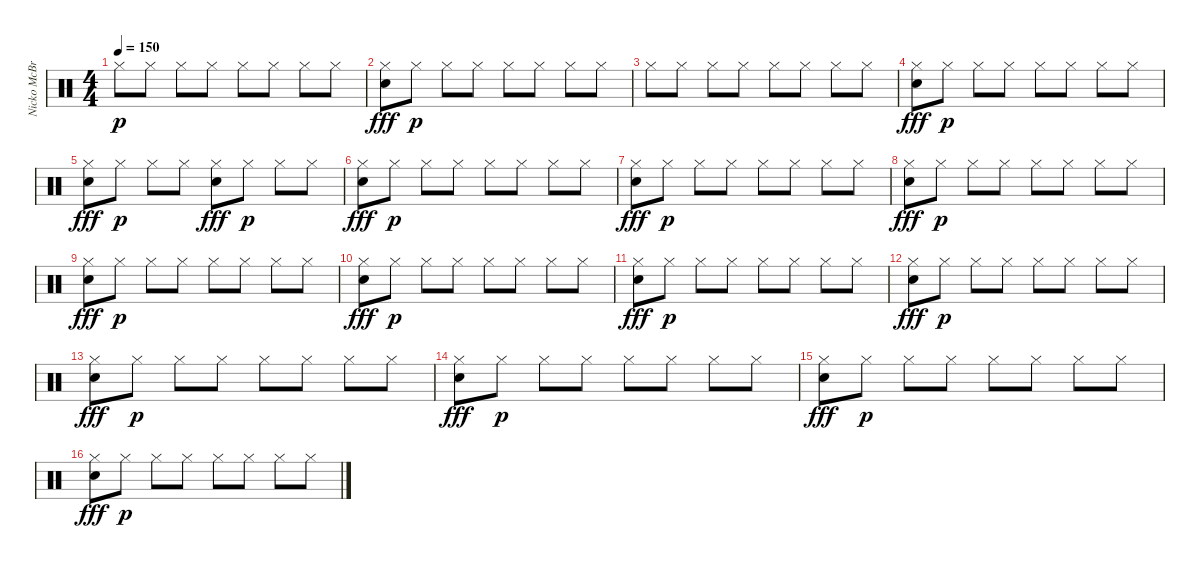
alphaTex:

\track ("Nicko McBrain" "Nicko McBr") {instrument percussion}
\staff {score}
\articulation defaults
\ts (4 4)
\tempo 150
\clef neutral
\ks c "Hi-Hat (closed)".8{dy p} "Hi-Hat (closed)".8 "Hi-Hat (closed)".8 "Hi-Hat (closed)".8 "Hi-Hat (closed)".8 "Hi-Hat (closed)".8 "Hi-Hat (closed)".8 "Hi-Hat (closed)".8
|
("Hi-Hat (closed)" "Snare (hit) 2").8{dy fff} "Hi-Hat (closed)".8{dy p} "Hi-Hat (closed)".8 "Hi-Hat (closed)".8 "Hi-Hat (closed)".8 "Hi-Hat (closed)".8 "Hi-Hat (closed)".8 "Hi-Hat (closed)".8 |
"Hi-Hat (closed)".8 "Hi-Hat (closed)".8 "Hi-Hat (closed)".8 "Hi-Hat (closed)".8 "Hi-Hat (closed)".8 "Hi-Hat (closed)".8 "Hi-Hat (closed)".8 "Hi-Hat (closed)".8 |
("Hi-Hat (closed)" "Snare (hit) 2").8{dy fff} "Hi-Hat (closed)".8{dy p} "Hi-Hat (closed)".8 "Hi-Hat (closed)".8 "Hi-Hat (closed)".8 "Hi-Hat (closed)".8 "Hi-Hat (closed)".8 "Hi-Hat (closed)".8 |
("Hi-Hat (closed)" "Snare (hit) 2").8{dy fff} "Hi-Hat (closed)".8{dy p} "Hi-Hat (closed)".8 "Hi-Hat (closed)".8 ("Hi-Hat (closed)" "Snare (hit) 2").8{dy fff} "Hi-Hat (closed)".8{dy p} "Hi-Hat (closed)".8 "Hi-Hat (closed)".8 |
("Hi-Hat (closed)" "Snare (hit) 2").8{dy fff} "Hi-Hat (closed)".8{dy p} "Hi-Hat (closed)".8 "Hi-Hat (closed)".8 "Hi-Hat (closed)".8 "Hi-Hat (closed)".8 "Hi-Hat (closed)".8 "Hi-Hat (closed)".8 |
("Hi-Hat (closed)" "Snare (hit) 2").8{dy fff} "Hi-Hat (closed)".8{dy p} "Hi-Hat (closed)".8 "Hi-Hat (closed)".8 "Hi-Hat (closed)".8 "Hi-Hat (closed)".8 "Hi-Hat (closed)".8 "Hi-Hat (closed)".8 |
("Hi-Hat (closed)" "Snare (hit) 2").8{dy fff} "Hi-Hat (closed)".8{dy p} "Hi-Hat (closed)".8 "Hi-Hat (closed)".8 "Hi-Hat (closed)".8 "Hi-Hat (closed)".8 "Hi-Hat (closed)".8 "Hi-Hat (closed)".8 |
("Hi-Hat (closed)" "Snare (hit) 2").8{dy fff} "Hi-Hat (closed)".8{dy p} "Hi-Hat (closed)".8 "Hi-Hat (closed)".8 "Hi-Hat (closed)".8 "Hi-Hat (closed)".8 "Hi-Hat (closed)".8 "Hi-Hat (closed)".8 |
("Hi-Hat (closed)" "Snare (hit) 2").8{dy fff} "Hi-Hat (closed)".8{dy p} "Hi-Hat (closed)".8 "Hi-Hat (closed)".8 "Hi-Hat (closed)".8 "Hi-Hat (closed)".8 "Hi-Hat (closed)".8 "Hi-Hat (closed)".8 |
("Hi-Hat (closed)" "Snare (hit) 2").8{dy fff} "Hi-Hat (closed)".8{dy p} "Hi-Hat (closed)".8 "Hi-Hat (closed)".8 "Hi-Hat (closed)".8 "Hi-Hat (closed)".8 "Hi-Hat (closed)".8 "Hi-Hat (closed)".8 |
("Hi-Hat (closed)" "Snare (hit) 2").8{dy fff} "Hi-Hat (closed)".8{dy p} "Hi-Hat (closed)".8 "Hi-Hat (closed)".8 "Hi-Hat (closed)".8 "Hi-Hat (closed)".8 "Hi-Hat (closed)".8 "Hi-Hat (closed)".8 |
("Hi-Hat (closed)" "Snare (hit) 2").8{dy fff} "Hi-Hat (closed)".8{dy p} "Hi-Hat (closed)".8 "Hi-Hat (closed)".8 "Hi-Hat (closed)".8 "Hi-Hat (closed)".8 "Hi-Hat (closed)".8 "Hi-Hat (closed)".8 |
("Hi-Hat (closed)" "Snare (hit) 2").8{dy fff} "Hi-Hat (closed)".8{dy p} "Hi-Hat (closed)".8 "Hi-Hat (closed)".8 "Hi-Hat (closed)".8 "Hi-Hat (closed)".8 "Hi-Hat (closed)".8 "Hi-Hat (closed)".8 |
("Hi-Hat (closed)" "Snare (hit) 2").8{dy fff} "Hi-Hat (closed)".8{dy p} "Hi-Hat (closed)".8 "Hi-Hat (closed)".8 "Hi-Hat (closed)".8 "Hi-Hat (closed)".8 "Hi-Hat (closed)".8 "Hi-Hat (closed)".8 |
("Hi-Hat (closed)" "Snare (hit) 2").8{dy fff} "Hi-Hat (closed)".8{dy p} "Hi-Hat (closed)".8 "Hi-Hat (closed)".8 "Hi-Hat (closed)".8 "Hi-Hat (closed)".8 "Hi-Hat (closed)".8 "Hi-Hat (closed)".8
